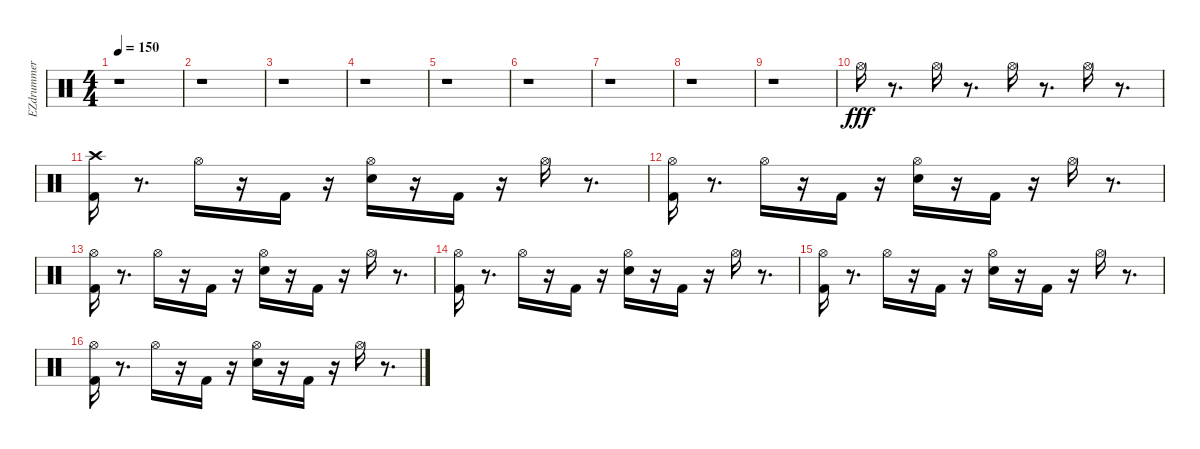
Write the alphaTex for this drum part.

\track ("EZdrummer 01" "EZdrummer ") {instrument percussion}
\staff {score}
\articulation defaults
\ts (4 4)
\tempo 150
\clef neutral
\ks c
r.1{dy fff} |
r.1 |
r.1 |
r.1 |
r.1 |
r.1 |
r.1 |
r.1 |
r.1 |
"Hi-Hat (open)".16 r.8{d} "Hi-Hat (open)".16 r.8{d} "Hi-Hat (open)".16 r.8{d} "Hi-Hat (open)".16 r.8{d} |
("Kick (hit) 2" "Crash high (hit)").16 r.8{d} "Hi-Hat (open)".16 r.16 "Kick (hit) 2".16 r.16 ("Hi-Hat (open)" "Electric Snare (hit)").16 r.16 "Kick (hit) 2".16 r.16 "Hi-Hat (open)".16 r.8{d} |
("Hi-Hat (open)" "Kick (hit) 2").16 r.8{d} "Hi-Hat (open)".16 r.16 "Kick (hit) 2".16 r.16 ("Hi-Hat (open)" "Electric Snare (hit)").16 r.16 "Kick (hit) 2".16 r.16 "Hi-Hat (open)".16 r.8{d} |
("Hi-Hat (open)" "Kick (hit) 2").16 r.8{d} "Hi-Hat (open)".16 r.16 "Kick (hit) 2".16 r.16 ("Hi-Hat (open)" "Electric Snare (hit)").16 r.16 "Kick (hit) 2".16 r.16 "Hi-Hat (open)".16 r.8{d} |
("Hi-Hat (open)" "Kick (hit) 2").16 r.8{d} "Hi-Hat (open)".16 r.16 "Kick (hit) 2".16 r.16 ("Hi-Hat (open)" "Electric Snare (hit)").16 r.16 "Kick (hit) 2".16 r.16 "Hi-Hat (open)".16 r.8{d} |
("Hi-Hat (open)" "Kick (hit) 2").16 r.8{d} "Hi-Hat (open)".16 r.16 "Kick (hit) 2".16 r.16 ("Hi-Hat (open)" "Electric Snare (hit)").16 r.16 "Kick (hit) 2".16 r.16 "Hi-Hat (open)".16 r.8{d} |
("Hi-Hat (open)" "Kick (hit) 2").16 r.8{d} "Hi-Hat (open)".16 r.16 "Kick (hit) 2".16 r.16 ("Hi-Hat (open)" "Electric Snare (hit)").16 r.16 "Kick (hit) 2".16 r.16 "Hi-Hat (open)".16 r.8{d}
